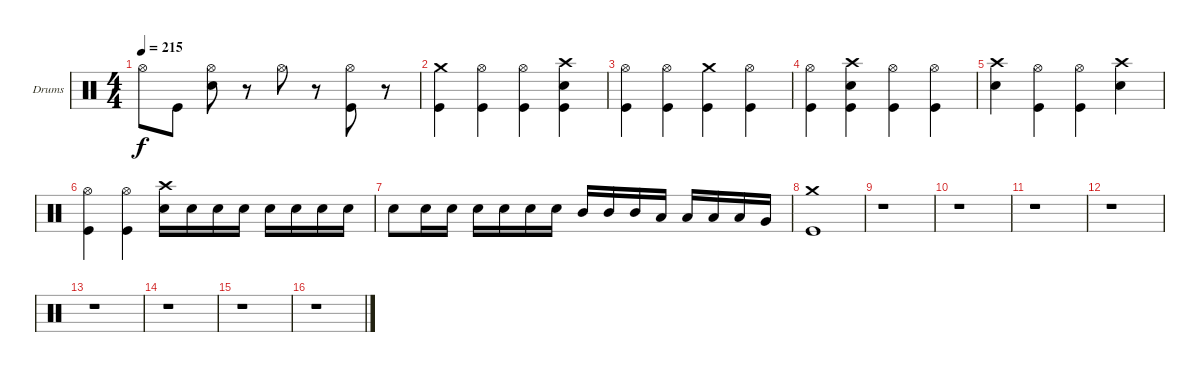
\bracketExtendMode groupsimilarinstruments
\firstSystemTrackNameOrientation horizontal
\otherSystemsTrackNameOrientation horizontal
\track ("Drumkit (Christoph)" "Drums") {instrument percussion}
\staff {score}
\articulation defaults
\ts (4 4)
\tempo 215
\clef neutral
\ks c "Hi-Hat (open)".8{dy f} "Kick (hit)".8
("Hi-Hat (open)" "Snare (hit) 2").8 r.8 "Hi-Hat (open)".8 r.8 ("Hi-Hat (open)" "Kick (hit)").8 r.8 |
("Crash medium (hit)" "Kick (hit)").4 ("Hi-Hat (open)" "Kick (hit)").4 ("Hi-Hat (open)" "Kick (hit)").4 ("Crash high (hit)" "Snare (hit) 2" "Kick (hit)").4 |
("Hi-Hat (open)" "Kick (hit)").4 ("Hi-Hat (open)" "Kick (hit)").4 ("Crash medium (hit)" "Kick (hit)").4 ("Hi-Hat (open)" "Kick (hit)").4 |
("Hi-Hat (open)" "Kick (hit)").4 ("Snare (hit) 2" "Crash high (hit)" "Kick (hit)").4 ("Hi-Hat (open)" "Kick (hit)").4 ("Hi-Hat (open)" "Kick (hit)").4 |
("Crash high (hit)" "Snare (hit) 2").4 ("Hi-Hat (open)" "Kick (hit)").4 ("Hi-Hat (open)" "Kick (hit)").4 ("Crash high (hit)" "Snare (hit) 2").4 |
("Hi-Hat (open)" "Kick (hit)").4 ("Hi-Hat (open)" "Kick (hit)").4 ("Crash high (hit)" "Snare (hit) 2").16 "Snare (hit) 2".16 "Snare (hit) 2".16 "Snare (hit) 2".16 "Snare (hit) 2".16 "Snare (hit) 2".16 "Snare (hit) 2".16 "Snare (hit) 2".16 |
"Snare (hit) 2".8 "Snare (hit) 2".16 "Snare (hit) 2".16 "Snare (hit) 2".16 "Snare (hit) 2".16 "Snare (hit) 2".16 "Snare (hit) 2".16 "Mid Tom (hit)".16 "Mid Tom (hit)".16 "Mid Tom (hit)".16 "Low Tom (hit)".16 "Low Tom (hit)".16 "Low Tom (hit)".16 "Low Tom (hit)".16 "Very Low Tom (hit)".16 |
("Crash medium (hit)" "Kick (hit)").1 |
r.1 |
r.1 |
r.1 |
r.1 |
r.1 |
r.1 |
r.1 |
r.1
